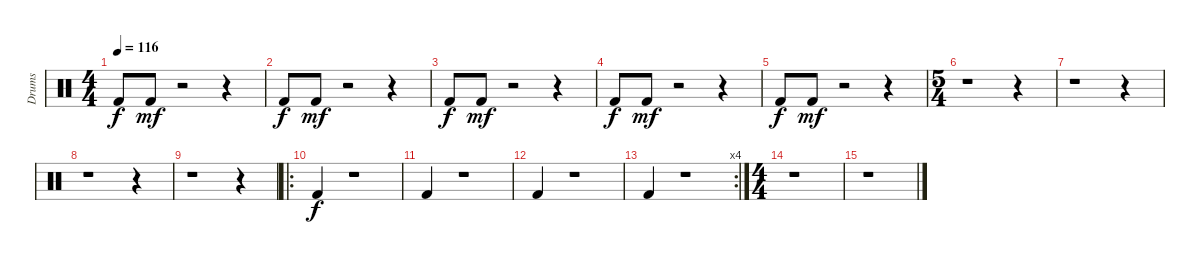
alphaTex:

\track ("Drums" "Drums") {instrument percussion}
\staff {score}
\articulation defaults
\ts (4 4)
\tempo 116
\clef neutral
\ks c "Kick (hit) 2".8{dy f} "Kick (hit) 2".8{dy mf}
r.2 r.4 |
"Kick (hit) 2".8{dy f} "Kick (hit) 2".8{dy mf} r.2 r.4 |
"Kick (hit) 2".8{dy f} "Kick (hit) 2".8{dy mf} r.2 r.4 |
"Kick (hit) 2".8{dy f} "Kick (hit) 2".8{dy mf} r.2 r.4 |
"Kick (hit) 2".8{dy f} "Kick (hit) 2".8{dy mf} r.2 r.4 |
\ts (5 4)
r.1 r.4 |
r.1 r.4 |
r.1 r.4 |
r.1 r.4 |
\ro "Kick (hit) 2".4{dy f}
r.1 |
"Kick (hit) 2".4 r.1 |
"Kick (hit) 2".4 r.1 |
\rc 4 "Kick (hit) 2".4
r.1 |
\ts (4 4)
r.1 |
r.1
